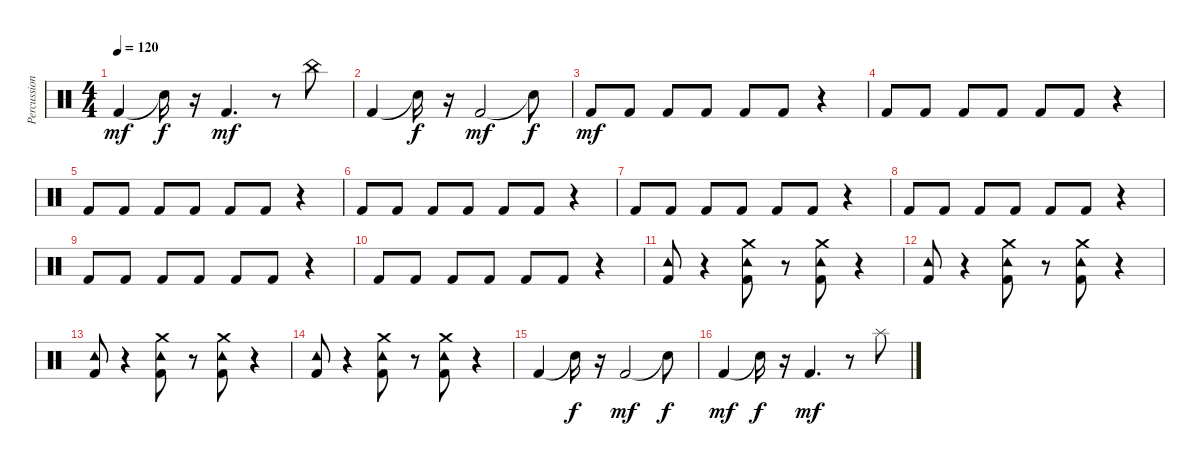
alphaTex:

\track ("Percussions" "Percussion") {instrument percussion}
\staff {score}
\articulation defaults
\ts (4 4)
\tempo 120
\clef neutral
\ks c "Kick (hit) 2".4{dy mf} "Snare (hit)"{t}.16{dy f}
r.16 "Kick (hit) 2".4{d dy mf} r.8 "China (hit)".8 |
"Kick (hit) 2".4 "Snare (hit)"{t}.16{dy f} r.16 "Kick (hit) 2".2{dy mf} "Snare (hit)"{t}.8{dy f} |
"Kick (hit) 2".8{dy mf} "Kick (hit) 2".8 "Kick (hit) 2".8 "Kick (hit) 2".8 "Kick (hit) 2".8 "Kick (hit) 2".8 r.4 |
"Kick (hit) 2".8 "Kick (hit) 2".8 "Kick (hit) 2".8 "Kick (hit) 2".8 "Kick (hit) 2".8 "Kick (hit) 2".8 r.4 |
"Kick (hit) 2".8 "Kick (hit) 2".8 "Kick (hit) 2".8 "Kick (hit) 2".8 "Kick (hit) 2".8 "Kick (hit) 2".8 r.4 |
"Kick (hit) 2".8 "Kick (hit) 2".8 "Kick (hit) 2".8 "Kick (hit) 2".8 "Kick (hit) 2".8 "Kick (hit) 2".8 r.4 |
"Kick (hit) 2".8 "Kick (hit) 2".8 "Kick (hit) 2".8 "Kick (hit) 2".8 "Kick (hit) 2".8 "Kick (hit) 2".8 r.4 |
"Kick (hit) 2".8 "Kick (hit) 2".8 "Kick (hit) 2".8 "Kick (hit) 2".8 "Kick (hit) 2".8 "Kick (hit) 2".8 r.4 |
"Kick (hit) 2".8 "Kick (hit) 2".8 "Kick (hit) 2".8 "Kick (hit) 2".8 "Kick (hit) 2".8 "Kick (hit) 2".8 r.4 |
"Kick (hit) 2".8 "Kick (hit) 2".8 "Kick (hit) 2".8 "Kick (hit) 2".8 "Kick (hit) 2".8 "Kick (hit) 2".8 r.4 |
("Kick (hit) 2" "Tambourine (hit)").8 r.4 ("Crash medium (hit)" "Tambourine (hit)" "Kick (hit) 2").8 r.8 ("Crash medium (hit)" "Kick (hit) 2" "Tambourine (hit)").8 r.4 |
("Tambourine (hit)" "Kick (hit) 2").8 r.4 ("Kick (hit) 2" "Tambourine (hit)" "Crash medium (hit)").8 r.8 ("Crash medium (hit)" "Kick (hit) 2" "Tambourine (hit)").8 r.4 |
("Kick (hit) 2" "Tambourine (hit)").8 r.4 ("Crash medium (hit)" "Tambourine (hit)" "Kick (hit) 2").8 r.8 ("Tambourine (hit)" "Kick (hit) 2" "Crash medium (hit)").8 r.4 |
("Tambourine (hit)" "Kick (hit) 2").8 r.4 ("Kick (hit) 2" "Tambourine (hit)" "Crash medium (hit)").8 r.8 ("Crash medium (hit)" "Kick (hit) 2" "Tambourine (hit)").8 r.4 |
"Kick (hit) 2".4 "Snare (hit)"{t}.16{dy f} r.16 "Kick (hit) 2".2{dy mf} "Snare (hit)"{t}.8{dy f} |
"Kick (hit) 2".4{dy mf} "Snare (hit)"{t}.16{dy f} r.16 "Kick (hit) 2".4{d dy mf} r.8 "Splash (hit)".8
